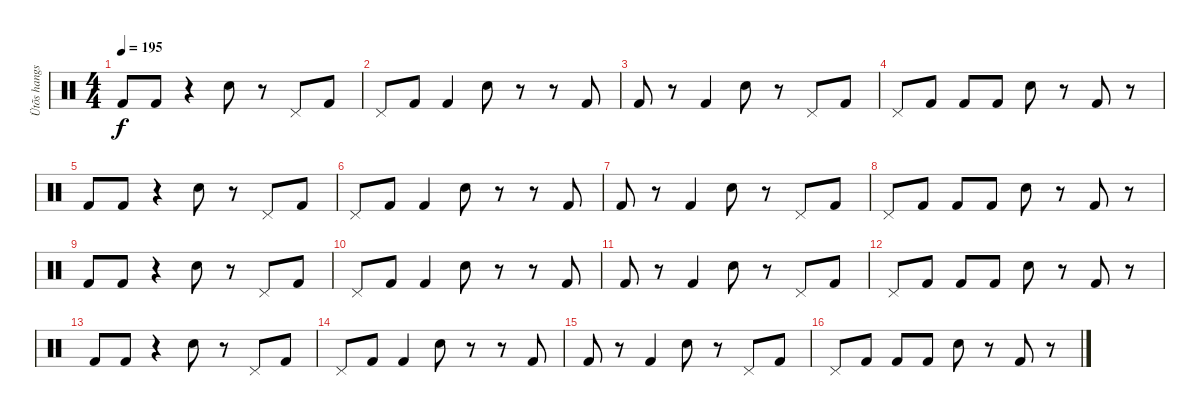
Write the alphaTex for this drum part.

\track ("Ütõs hangszer" "Ütõs hangs") {instrument percussion}
\staff {score}
\articulation defaults
\ts (4 4)
\section ("" "")
\tempo 195
\clef neutral
\ks c "Kick (hit) 2".8{dy f} "Kick (hit) 2".8
r.4 "Electric Snare (hit)".8 r.8 "Pedal Hi-Hat (hit)".8 "Kick (hit) 2".8 |
"Pedal Hi-Hat (hit)".8 "Kick (hit) 2".8 "Kick (hit) 2".4 "Electric Snare (hit)".8 r.8 r.8 "Kick (hit) 2".8 |
"Kick (hit) 2".8 r.8 "Kick (hit) 2".4 "Electric Snare (hit)".8 r.8 "Pedal Hi-Hat (hit)".8 "Kick (hit) 2".8 |
"Pedal Hi-Hat (hit)".8 "Kick (hit) 2".8 "Kick (hit) 2".8 "Kick (hit) 2".8 "Electric Snare (hit)".8 r.8 "Kick (hit) 2".8 r.8 |
"Kick (hit) 2".8 "Kick (hit) 2".8 r.4 "Electric Snare (hit)".8 r.8 "Pedal Hi-Hat (hit)".8 "Kick (hit) 2".8 |
"Pedal Hi-Hat (hit)".8 "Kick (hit) 2".8 "Kick (hit) 2".4 "Electric Snare (hit)".8 r.8 r.8 "Kick (hit) 2".8 |
"Kick (hit) 2".8 r.8 "Kick (hit) 2".4 "Electric Snare (hit)".8 r.8 "Pedal Hi-Hat (hit)".8 "Kick (hit) 2".8 |
"Pedal Hi-Hat (hit)".8 "Kick (hit) 2".8 "Kick (hit) 2".8 "Kick (hit) 2".8 "Electric Snare (hit)".8 r.8 "Kick (hit) 2".8 r.8 |
"Kick (hit) 2".8 "Kick (hit) 2".8 r.4 "Electric Snare (hit)".8 r.8 "Pedal Hi-Hat (hit)".8 "Kick (hit) 2".8 |
"Pedal Hi-Hat (hit)".8 "Kick (hit) 2".8 "Kick (hit) 2".4 "Electric Snare (hit)".8 r.8 r.8 "Kick (hit) 2".8 |
"Kick (hit) 2".8 r.8 "Kick (hit) 2".4 "Electric Snare (hit)".8 r.8 "Pedal Hi-Hat (hit)".8 "Kick (hit) 2".8 |
"Pedal Hi-Hat (hit)".8 "Kick (hit) 2".8 "Kick (hit) 2".8 "Kick (hit) 2".8 "Electric Snare (hit)".8 r.8 "Kick (hit) 2".8 r.8 |
"Kick (hit) 2".8 "Kick (hit) 2".8 r.4 "Electric Snare (hit)".8 r.8 "Pedal Hi-Hat (hit)".8 "Kick (hit) 2".8 |
"Pedal Hi-Hat (hit)".8 "Kick (hit) 2".8 "Kick (hit) 2".4 "Electric Snare (hit)".8 r.8 r.8 "Kick (hit) 2".8 |
"Kick (hit) 2".8 r.8 "Kick (hit) 2".4 "Electric Snare (hit)".8 r.8 "Pedal Hi-Hat (hit)".8 "Kick (hit) 2".8 |
"Pedal Hi-Hat (hit)".8 "Kick (hit) 2".8 "Kick (hit) 2".8 "Kick (hit) 2".8 "Electric Snare (hit)".8 r.8 "Kick (hit) 2".8 r.8
